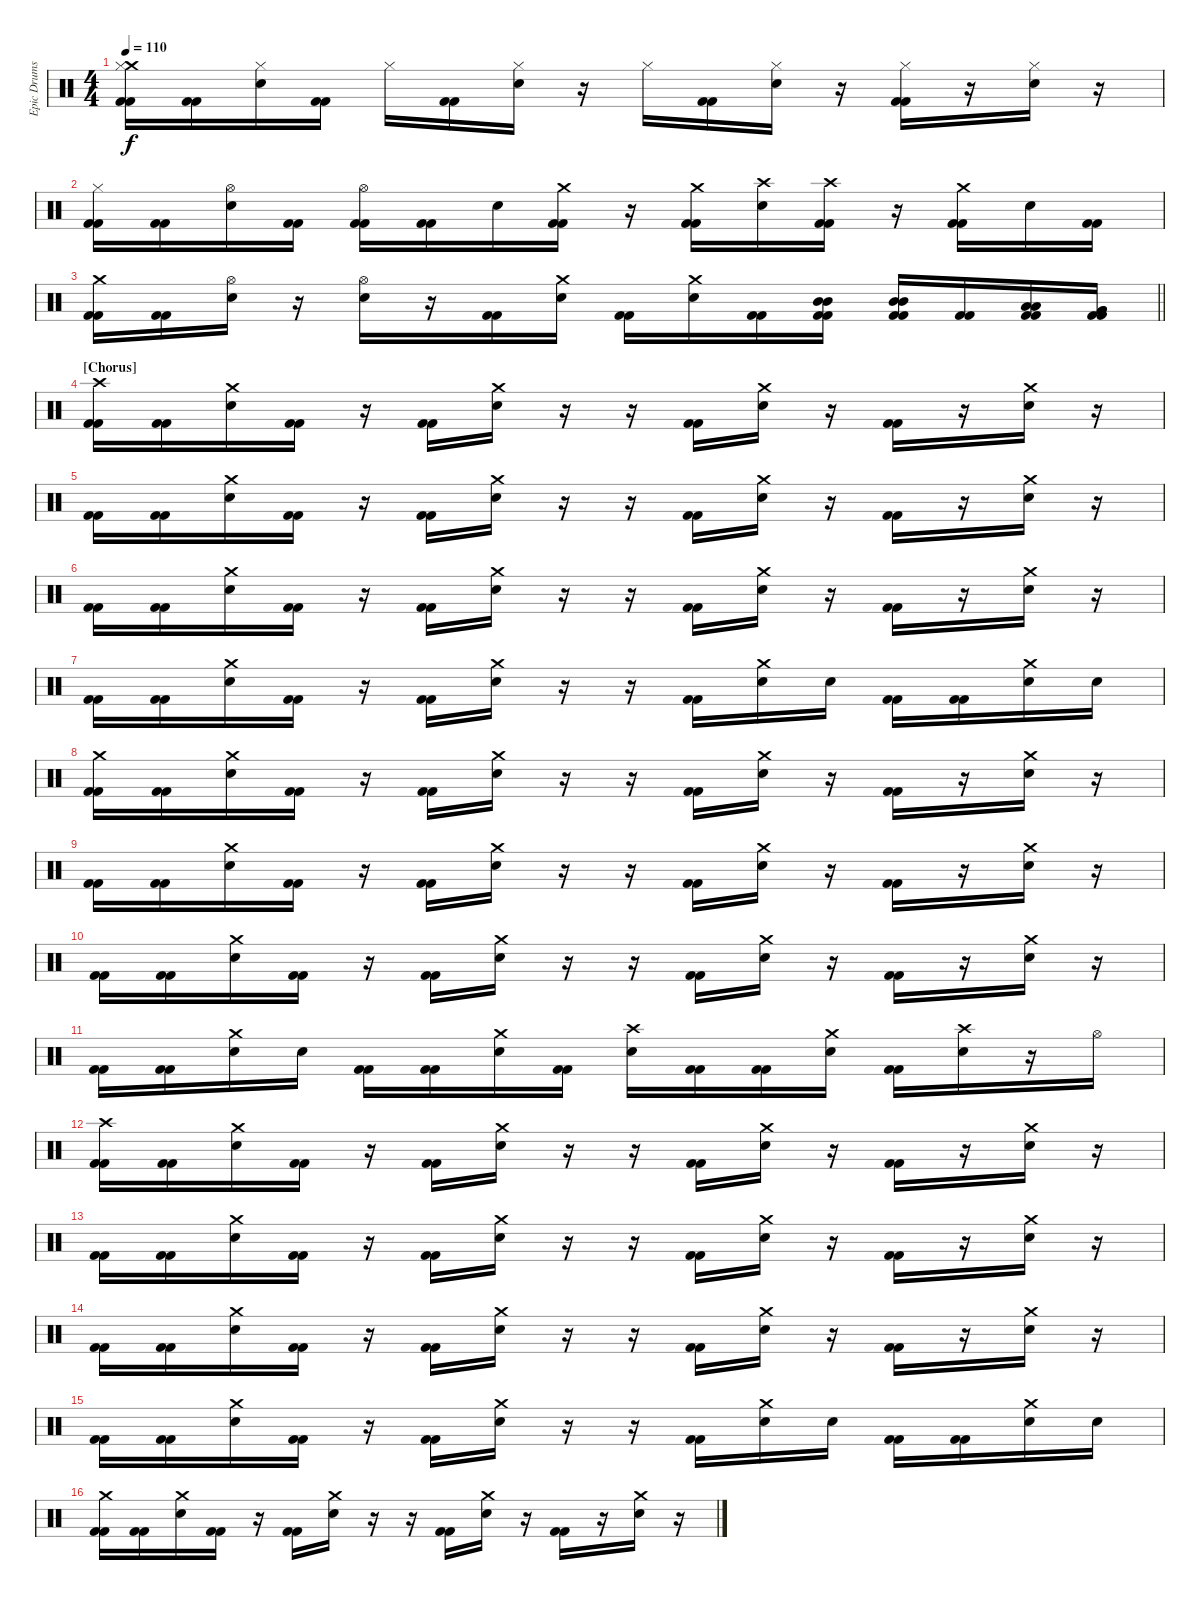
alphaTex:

\track ("Epic Drums" "Epic Drums") {instrument percussion}
\staff {score}
\articulation defaults
\ts (4 4)
\tempo 110
\clef neutral
\ks c
("Crash medium (hit)" "Hi-Hat (closed)" "Kick (hit) 2" "Kick (hit) 2").16{dy f} ("Kick (hit) 2" "Kick (hit) 2").16 ("Hi-Hat (closed)" "Electric Snare (hit)").16 ("Kick (hit) 2" "Kick (hit) 2").16 "Hi-Hat (closed)".16 ("Kick (hit) 2" "Kick (hit) 2").16 ("Hi-Hat (closed)" "Electric Snare (hit)").16 r.16 "Hi-Hat (closed)".16 ("Kick (hit) 2" "Kick (hit) 2").16 ("Hi-Hat (closed)" "Electric Snare (hit)").16 r.16 ("Hi-Hat (closed)" "Kick (hit) 2" "Kick (hit) 2").16 r.16 ("Hi-Hat (closed)" "Electric Snare (hit)").16 r.16 |
("Hi-Hat (closed)" "Kick (hit) 2" "Kick (hit) 2").16 ("Kick (hit) 2" "Kick (hit) 2").16 ("Hi-Hat (open)" "Electric Snare (hit)").16 ("Kick (hit) 2" "Kick (hit) 2").16 ("Hi-Hat (open)" "Kick (hit) 2" "Kick (hit) 2").16 ("Kick (hit) 2" "Kick (hit) 2").16 "Electric Snare (hit)".16 ("Crash medium (hit)" "Kick (hit) 2" "Kick (hit) 2").16 r.16 ("Crash medium (hit)" "Kick (hit) 2" "Kick (hit) 2").16 ("Crash high (hit)" "Electric Snare (hit)").16 ("Crash high (hit)" "Kick (hit) 2" "Kick (hit) 2").16 r.16 ("Crash medium (hit)" "Kick (hit) 2" "Kick (hit) 2").16 "Electric Snare (hit)".16 ("Kick (hit) 2" "Kick (hit) 2").16 |
\barLineRight lightlight
("Crash medium (hit)" "Kick (hit) 2" "Kick (hit) 2").16 ("Kick (hit) 2" "Kick (hit) 2").16 ("Hi-Hat (open)" "Electric Snare (hit)").16 r.16 ("Hi-Hat (open)" "Electric Snare (hit)").16 r.16 ("Kick (hit) 2" "Kick (hit) 2").16 ("Crash medium (hit)" "Electric Snare (hit)").16 ("Kick (hit) 2" "Kick (hit) 2").16 ("Crash medium (hit)" "Electric Snare (hit)").16 ("Kick (hit) 2" "Kick (hit) 2").16 ("Mid Tom (hit)" "Mid Tom (hit)" "Kick (hit) 2" "Kick (hit) 2").16 ("Mid Tom (hit)" "Mid Tom (hit)" "Kick (hit) 2" "Kick (hit) 2").16 ("Kick (hit) 2" "Kick (hit) 2").16 ("Low Tom (hit)" "Low Tom (hit)" "Kick (hit) 2" "Kick (hit) 2").16 ("Very Low Tom (hit)" "Very Low Tom (hit)" "Kick (hit) 2" "Kick (hit) 2").16 |
\section ("" "[Chorus]")
("Crash high (hit)" "Kick (hit) 2" "Kick (hit) 2").16 ("Kick (hit) 2" "Kick (hit) 2").16 ("Crash medium (hit)" "Electric Snare (hit)").16 ("Kick (hit) 2" "Kick (hit) 2").16 r.16 ("Kick (hit) 2" "Kick (hit) 2").16 ("Crash medium (hit)" "Electric Snare (hit)").16 r.16 r.16 ("Kick (hit) 2" "Kick (hit) 2").16 ("Crash medium (hit)" "Electric Snare (hit)").16 r.16 ("Kick (hit) 2" "Kick (hit) 2").16 r.16 ("Crash medium (hit)" "Electric Snare (hit)").16 r.16 |
("Kick (hit) 2" "Kick (hit) 2").16 ("Kick (hit) 2" "Kick (hit) 2").16 ("Crash medium (hit)" "Electric Snare (hit)").16 ("Kick (hit) 2" "Kick (hit) 2").16 r.16 ("Kick (hit) 2" "Kick (hit) 2").16 ("Crash medium (hit)" "Electric Snare (hit)").16 r.16 r.16 ("Kick (hit) 2" "Kick (hit) 2").16 ("Crash medium (hit)" "Electric Snare (hit)").16 r.16 ("Kick (hit) 2" "Kick (hit) 2").16 r.16 ("Crash medium (hit)" "Electric Snare (hit)").16 r.16 |
("Kick (hit) 2" "Kick (hit) 2").16 ("Kick (hit) 2" "Kick (hit) 2").16 ("Crash medium (hit)" "Electric Snare (hit)").16 ("Kick (hit) 2" "Kick (hit) 2").16 r.16 ("Kick (hit) 2" "Kick (hit) 2").16 ("Crash medium (hit)" "Electric Snare (hit)").16 r.16 r.16 ("Kick (hit) 2" "Kick (hit) 2").16 ("Crash medium (hit)" "Electric Snare (hit)").16 r.16 ("Kick (hit) 2" "Kick (hit) 2").16 r.16 ("Crash medium (hit)" "Electric Snare (hit)").16 r.16 |
("Kick (hit) 2" "Kick (hit) 2").16 ("Kick (hit) 2" "Kick (hit) 2").16 ("Crash medium (hit)" "Electric Snare (hit)").16 ("Kick (hit) 2" "Kick (hit) 2").16 r.16 ("Kick (hit) 2" "Kick (hit) 2").16 ("Crash medium (hit)" "Electric Snare (hit)").16 r.16 r.16 ("Kick (hit) 2" "Kick (hit) 2").16 ("Crash medium (hit)" "Electric Snare (hit)").16 "Electric Snare (hit)".16 ("Kick (hit) 2" "Kick (hit) 2").16 ("Kick (hit) 2" "Kick (hit) 2").16 ("Crash medium (hit)" "Electric Snare (hit)").16 "Electric Snare (hit)".16 |
("Crash medium (hit)" "Kick (hit) 2" "Kick (hit) 2").16 ("Kick (hit) 2" "Kick (hit) 2").16 ("Crash medium (hit)" "Electric Snare (hit)").16 ("Kick (hit) 2" "Kick (hit) 2").16 r.16 ("Kick (hit) 2" "Kick (hit) 2").16 ("Crash medium (hit)" "Electric Snare (hit)").16 r.16 r.16 ("Kick (hit) 2" "Kick (hit) 2").16 ("Crash medium (hit)" "Electric Snare (hit)").16 r.16 ("Kick (hit) 2" "Kick (hit) 2").16 r.16 ("Crash medium (hit)" "Electric Snare (hit)").16 r.16 |
("Kick (hit) 2" "Kick (hit) 2").16 ("Kick (hit) 2" "Kick (hit) 2").16 ("Crash medium (hit)" "Electric Snare (hit)").16 ("Kick (hit) 2" "Kick (hit) 2").16 r.16 ("Kick (hit) 2" "Kick (hit) 2").16 ("Crash medium (hit)" "Electric Snare (hit)").16 r.16 r.16 ("Kick (hit) 2" "Kick (hit) 2").16 ("Crash medium (hit)" "Electric Snare (hit)").16 r.16 ("Kick (hit) 2" "Kick (hit) 2").16 r.16 ("Crash medium (hit)" "Electric Snare (hit)").16 r.16 |
("Kick (hit) 2" "Kick (hit) 2").16 ("Kick (hit) 2" "Kick (hit) 2").16 ("Crash medium (hit)" "Electric Snare (hit)").16 ("Kick (hit) 2" "Kick (hit) 2").16 r.16 ("Kick (hit) 2" "Kick (hit) 2").16 ("Crash medium (hit)" "Electric Snare (hit)").16 r.16 r.16 ("Kick (hit) 2" "Kick (hit) 2").16 ("Crash medium (hit)" "Electric Snare (hit)").16 r.16 ("Kick (hit) 2" "Kick (hit) 2").16 r.16 ("Crash medium (hit)" "Electric Snare (hit)").16 r.16 |
("Kick (hit) 2" "Kick (hit) 2").16 ("Kick (hit) 2" "Kick (hit) 2").16 ("Crash medium (hit)" "Electric Snare (hit)").16 "Electric Snare (hit)".16 ("Kick (hit) 2" "Kick (hit) 2").16 ("Kick (hit) 2" "Kick (hit) 2").16 ("Crash medium (hit)" "Electric Snare (hit)").16 ("Kick (hit) 2" "Kick (hit) 2").16 ("Crash high (hit)" "Electric Snare (hit)").16 ("Kick (hit) 2" "Kick (hit) 2").16 ("Kick (hit) 2" "Kick (hit) 2").16 ("Crash medium (hit)" "Electric Snare (hit)").16 ("Kick (hit) 2" "Kick (hit) 2").16 ("Crash high (hit)" "Electric Snare (hit)").16 r.16 "Hi-Hat (open)".16 |
("Crash high (hit)" "Kick (hit) 2" "Kick (hit) 2").16 ("Kick (hit) 2" "Kick (hit) 2").16 ("Crash medium (hit)" "Electric Snare (hit)").16 ("Kick (hit) 2" "Kick (hit) 2").16 r.16 ("Kick (hit) 2" "Kick (hit) 2").16 ("Crash medium (hit)" "Electric Snare (hit)").16 r.16 r.16 ("Kick (hit) 2" "Kick (hit) 2").16 ("Crash medium (hit)" "Electric Snare (hit)").16 r.16 ("Kick (hit) 2" "Kick (hit) 2").16 r.16 ("Crash medium (hit)" "Electric Snare (hit)").16 r.16 |
("Kick (hit) 2" "Kick (hit) 2").16 ("Kick (hit) 2" "Kick (hit) 2").16 ("Crash medium (hit)" "Electric Snare (hit)").16 ("Kick (hit) 2" "Kick (hit) 2").16 r.16 ("Kick (hit) 2" "Kick (hit) 2").16 ("Crash medium (hit)" "Electric Snare (hit)").16 r.16 r.16 ("Kick (hit) 2" "Kick (hit) 2").16 ("Crash medium (hit)" "Electric Snare (hit)").16 r.16 ("Kick (hit) 2" "Kick (hit) 2").16 r.16 ("Crash medium (hit)" "Electric Snare (hit)").16 r.16 |
("Kick (hit) 2" "Kick (hit) 2").16 ("Kick (hit) 2" "Kick (hit) 2").16 ("Crash medium (hit)" "Electric Snare (hit)").16 ("Kick (hit) 2" "Kick (hit) 2").16 r.16 ("Kick (hit) 2" "Kick (hit) 2").16 ("Crash medium (hit)" "Electric Snare (hit)").16 r.16 r.16 ("Kick (hit) 2" "Kick (hit) 2").16 ("Crash medium (hit)" "Electric Snare (hit)").16 r.16 ("Kick (hit) 2" "Kick (hit) 2").16 r.16 ("Crash medium (hit)" "Electric Snare (hit)").16 r.16 |
("Kick (hit) 2" "Kick (hit) 2").16 ("Kick (hit) 2" "Kick (hit) 2").16 ("Crash medium (hit)" "Electric Snare (hit)").16 ("Kick (hit) 2" "Kick (hit) 2").16 r.16 ("Kick (hit) 2" "Kick (hit) 2").16 ("Crash medium (hit)" "Electric Snare (hit)").16 r.16 r.16 ("Kick (hit) 2" "Kick (hit) 2").16 ("Crash medium (hit)" "Electric Snare (hit)").16 "Electric Snare (hit)".16 ("Kick (hit) 2" "Kick (hit) 2").16 ("Kick (hit) 2" "Kick (hit) 2").16 ("Crash medium (hit)" "Electric Snare (hit)").16 "Electric Snare (hit)".16 |
("Crash medium (hit)" "Kick (hit) 2" "Kick (hit) 2").16 ("Kick (hit) 2" "Kick (hit) 2").16 ("Crash medium (hit)" "Electric Snare (hit)").16 ("Kick (hit) 2" "Kick (hit) 2").16 r.16 ("Kick (hit) 2" "Kick (hit) 2").16 ("Crash medium (hit)" "Electric Snare (hit)").16 r.16 r.16 ("Kick (hit) 2" "Kick (hit) 2").16 ("Crash medium (hit)" "Electric Snare (hit)").16 r.16 ("Kick (hit) 2" "Kick (hit) 2").16 r.16 ("Crash medium (hit)" "Electric Snare (hit)").16 r.16
